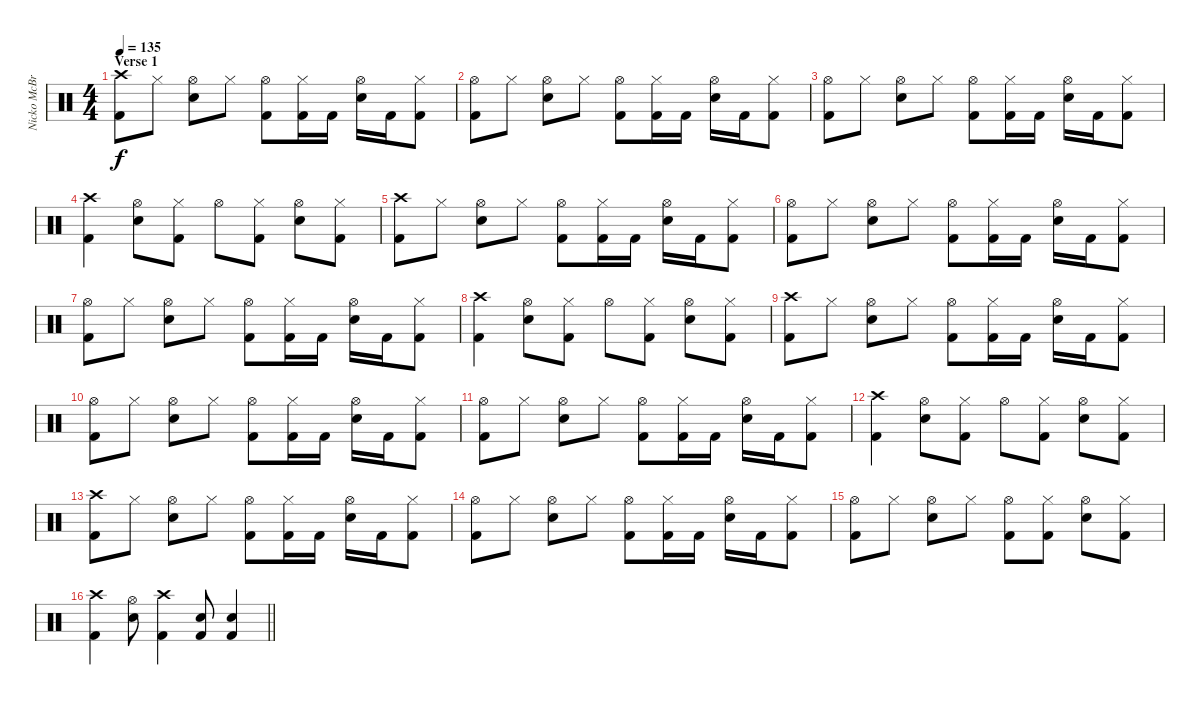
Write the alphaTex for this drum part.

\track ("Nicko McBrain" "Nicko McBr") {instrument percussion}
\staff {score}
\articulation defaults
\ts (4 4)
\section ("" "Verse 1")
\tempo 135
\clef neutral
\ks c
("Crash high (hit)" "Kick (hit) 2").8{dy f} "Hi-Hat (closed)".8 ("Hi-Hat (open)" "Electric Snare (hit)").8 "Hi-Hat (closed)".8 ("Hi-Hat (open)" "Kick (hit) 2").8 ("Hi-Hat (closed)" "Kick (hit) 2").16 "Kick (hit) 2".16 ("Hi-Hat (open)" "Electric Snare (hit)").16 "Kick (hit) 2".16 ("Hi-Hat (closed)" "Kick (hit) 2").8 |
("Hi-Hat (open)" "Kick (hit) 2").8 "Hi-Hat (closed)".8 ("Hi-Hat (open)" "Electric Snare (hit)").8 "Hi-Hat (closed)".8 ("Hi-Hat (open)" "Kick (hit) 2").8 ("Hi-Hat (closed)" "Kick (hit) 2").16 "Kick (hit) 2".16 ("Hi-Hat (open)" "Electric Snare (hit)").16 "Kick (hit) 2".16 ("Hi-Hat (closed)" "Kick (hit) 2").8 |
("Hi-Hat (open)" "Kick (hit) 2").8 "Hi-Hat (closed)".8 ("Hi-Hat (open)" "Electric Snare (hit)").8 "Hi-Hat (closed)".8 ("Hi-Hat (open)" "Kick (hit) 2").8 ("Hi-Hat (closed)" "Kick (hit) 2").16 "Kick (hit) 2".16 ("Hi-Hat (open)" "Electric Snare (hit)").16 "Kick (hit) 2".16 ("Hi-Hat (closed)" "Kick (hit) 2").8 |
("Crash high (hit)" "Kick (hit) 2").4 ("Hi-Hat (open)" "Electric Snare (hit)").8 ("Hi-Hat (closed)" "Kick (hit) 2").8 "Hi-Hat (open)".8 ("Hi-Hat (closed)" "Kick (hit) 2").8 ("Hi-Hat (open)" "Electric Snare (hit)").8 ("Hi-Hat (closed)" "Kick (hit) 2").8 |
("Crash high (hit)" "Kick (hit) 2").8 "Hi-Hat (closed)".8 ("Hi-Hat (open)" "Electric Snare (hit)").8 "Hi-Hat (closed)".8 ("Hi-Hat (open)" "Kick (hit) 2").8 ("Hi-Hat (closed)" "Kick (hit) 2").16 "Kick (hit) 2".16 ("Hi-Hat (open)" "Electric Snare (hit)").16 "Kick (hit) 2".16 ("Hi-Hat (closed)" "Kick (hit) 2").8 |
("Hi-Hat (open)" "Kick (hit) 2").8 "Hi-Hat (closed)".8 ("Hi-Hat (open)" "Electric Snare (hit)").8 "Hi-Hat (closed)".8 ("Hi-Hat (open)" "Kick (hit) 2").8 ("Hi-Hat (closed)" "Kick (hit) 2").16 "Kick (hit) 2".16 ("Hi-Hat (open)" "Electric Snare (hit)").16 "Kick (hit) 2".16 ("Hi-Hat (closed)" "Kick (hit) 2").8 |
("Hi-Hat (open)" "Kick (hit) 2").8 "Hi-Hat (closed)".8 ("Hi-Hat (open)" "Electric Snare (hit)").8 "Hi-Hat (closed)".8 ("Hi-Hat (open)" "Kick (hit) 2").8 ("Hi-Hat (closed)" "Kick (hit) 2").16 "Kick (hit) 2".16 ("Hi-Hat (open)" "Electric Snare (hit)").16 "Kick (hit) 2".16 ("Hi-Hat (closed)" "Kick (hit) 2").8 |
("Crash high (hit)" "Kick (hit) 2").4 ("Hi-Hat (open)" "Electric Snare (hit)").8 ("Hi-Hat (closed)" "Kick (hit) 2").8 "Hi-Hat (open)".8 ("Hi-Hat (closed)" "Kick (hit) 2").8 ("Hi-Hat (open)" "Electric Snare (hit)").8 ("Hi-Hat (closed)" "Kick (hit) 2").8 |
("Crash high (hit)" "Kick (hit) 2").8 "Hi-Hat (closed)".8 ("Hi-Hat (open)" "Electric Snare (hit)").8 "Hi-Hat (closed)".8 ("Hi-Hat (open)" "Kick (hit) 2").8 ("Hi-Hat (closed)" "Kick (hit) 2").16 "Kick (hit) 2".16 ("Hi-Hat (open)" "Electric Snare (hit)").16 "Kick (hit) 2".16 ("Hi-Hat (closed)" "Kick (hit) 2").8 |
("Hi-Hat (open)" "Kick (hit) 2").8 "Hi-Hat (closed)".8 ("Hi-Hat (open)" "Electric Snare (hit)").8 "Hi-Hat (closed)".8 ("Hi-Hat (open)" "Kick (hit) 2").8 ("Hi-Hat (closed)" "Kick (hit) 2").16 "Kick (hit) 2".16 ("Hi-Hat (open)" "Electric Snare (hit)").16 "Kick (hit) 2".16 ("Hi-Hat (closed)" "Kick (hit) 2").8 |
("Hi-Hat (open)" "Kick (hit) 2").8 "Hi-Hat (closed)".8 ("Hi-Hat (open)" "Electric Snare (hit)").8 "Hi-Hat (closed)".8 ("Hi-Hat (open)" "Kick (hit) 2").8 ("Hi-Hat (closed)" "Kick (hit) 2").16 "Kick (hit) 2".16 ("Hi-Hat (open)" "Electric Snare (hit)").16 "Kick (hit) 2".16 ("Hi-Hat (closed)" "Kick (hit) 2").8 |
("Crash high (hit)" "Kick (hit) 2").4 ("Hi-Hat (open)" "Electric Snare (hit)").8 ("Hi-Hat (closed)" "Kick (hit) 2").8 "Hi-Hat (open)".8 ("Hi-Hat (closed)" "Kick (hit) 2").8 ("Hi-Hat (open)" "Electric Snare (hit)").8 ("Hi-Hat (closed)" "Kick (hit) 2").8 |
("Crash high (hit)" "Kick (hit) 2").8 "Hi-Hat (closed)".8 ("Hi-Hat (open)" "Electric Snare (hit)").8 "Hi-Hat (closed)".8 ("Hi-Hat (open)" "Kick (hit) 2").8 ("Hi-Hat (closed)" "Kick (hit) 2").16 "Kick (hit) 2".16 ("Hi-Hat (open)" "Electric Snare (hit)").16 "Kick (hit) 2".16 ("Hi-Hat (closed)" "Kick (hit) 2").8 |
("Hi-Hat (open)" "Kick (hit) 2").8 "Hi-Hat (closed)".8 ("Hi-Hat (open)" "Electric Snare (hit)").8 "Hi-Hat (closed)".8 ("Hi-Hat (open)" "Kick (hit) 2").8 ("Hi-Hat (closed)" "Kick (hit) 2").16 "Kick (hit) 2".16 ("Hi-Hat (open)" "Electric Snare (hit)").16 "Kick (hit) 2".16 ("Hi-Hat (closed)" "Kick (hit) 2").8 |
("Hi-Hat (open)" "Kick (hit) 2").8 "Hi-Hat (closed)".8 ("Hi-Hat (open)" "Electric Snare (hit)").8 "Hi-Hat (closed)".8 ("Hi-Hat (open)" "Kick (hit) 2").8 ("Hi-Hat (closed)" "Kick (hit) 2").8 ("Hi-Hat (open)" "Electric Snare (hit)").8 ("Hi-Hat (closed)" "Kick (hit) 2").8 |
\barLineRight lightlight
("Crash high (hit)" "Kick (hit) 2").4 ("Hi-Hat (open)" "Electric Snare (hit)").8 ("Crash high (hit)" "Kick (hit) 2").4 ("Electric Snare (hit)" "Kick (hit) 2").8 ("Electric Snare (hit)" "Kick (hit) 2").4
